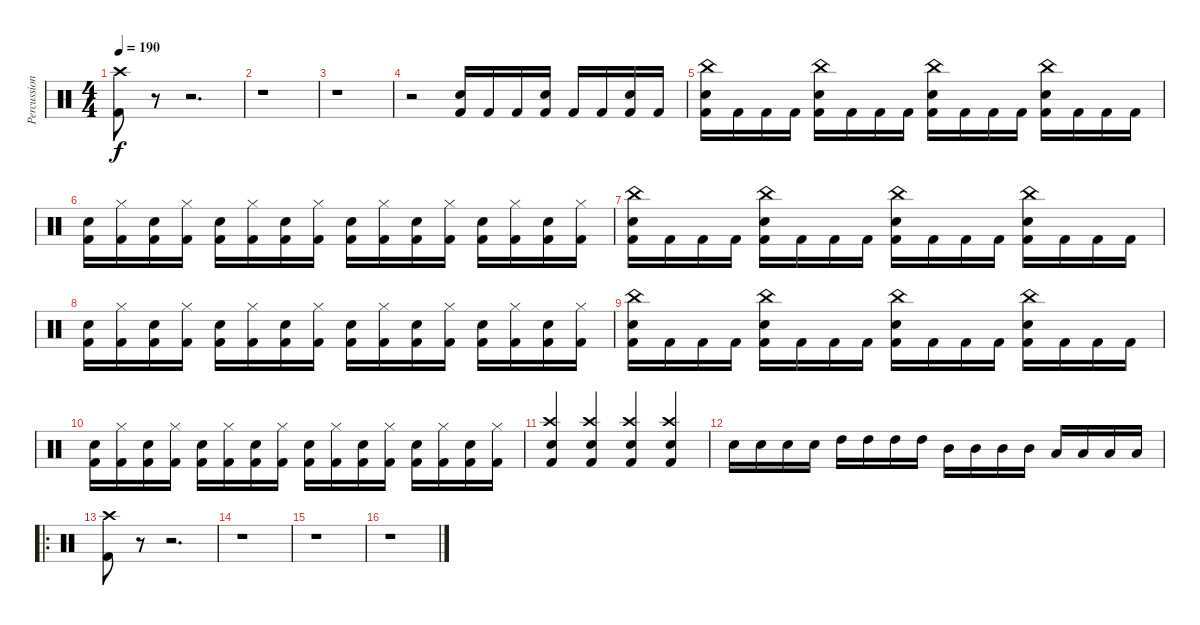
\track ("Percussion" "Percussion") {instrument percussion}
\staff {score}
\articulation defaults
\ts (4 4)
\tempo 190
\clef neutral
\ks c
("Kick (hit) 2" "Crash high (hit)").8{dy f} r.8 r.2{d} |
r.1 |
r.1 |
r.2 ("Snare (hit) 2" "Kick (hit) 2").16 "Kick (hit) 2".16 "Kick (hit) 2".16 ("Snare (hit) 2" "Kick (hit) 2").16 "Kick (hit) 2".16 "Kick (hit) 2".16 ("Snare (hit) 2" "Kick (hit) 2").16 "Kick (hit) 2".16 |
("China (hit)" "Snare (hit) 2" "Kick (hit) 2").16 "Kick (hit) 2".16 "Kick (hit) 2".16 "Kick (hit) 2".16 ("China (hit)" "Snare (hit) 2" "Kick (hit) 2").16 "Kick (hit) 2".16 "Kick (hit) 2".16 "Kick (hit) 2".16 ("China (hit)" "Snare (hit) 2" "Kick (hit) 2").16 "Kick (hit) 2".16 "Kick (hit) 2".16 "Kick (hit) 2".16 ("China (hit)" "Snare (hit) 2" "Kick (hit) 2").16 "Kick (hit) 2".16 "Kick (hit) 2".16 "Kick (hit) 2".16 |
("Snare (hit) 2" "Kick (hit) 2").16 ("Hi-Hat (closed)" "Kick (hit) 2").16 ("Snare (hit) 2" "Kick (hit) 2").16 ("Hi-Hat (closed)" "Kick (hit) 2").16 ("Snare (hit) 2" "Kick (hit) 2").16 ("Hi-Hat (closed)" "Kick (hit) 2").16 ("Snare (hit) 2" "Kick (hit) 2").16 ("Hi-Hat (closed)" "Kick (hit) 2").16 ("Snare (hit) 2" "Kick (hit) 2").16 ("Hi-Hat (closed)" "Kick (hit) 2").16 ("Snare (hit) 2" "Kick (hit) 2").16 ("Hi-Hat (closed)" "Kick (hit) 2").16 ("Snare (hit) 2" "Kick (hit) 2").16 ("Hi-Hat (closed)" "Kick (hit) 2").16 ("Snare (hit) 2" "Kick (hit) 2").16 ("Hi-Hat (closed)" "Kick (hit) 2").16 |
("China (hit)" "Snare (hit) 2" "Kick (hit) 2").16 "Kick (hit) 2".16 "Kick (hit) 2".16 "Kick (hit) 2".16 ("China (hit)" "Snare (hit) 2" "Kick (hit) 2").16 "Kick (hit) 2".16 "Kick (hit) 2".16 "Kick (hit) 2".16 ("China (hit)" "Snare (hit) 2" "Kick (hit) 2").16 "Kick (hit) 2".16 "Kick (hit) 2".16 "Kick (hit) 2".16 ("China (hit)" "Snare (hit) 2" "Kick (hit) 2").16 "Kick (hit) 2".16 "Kick (hit) 2".16 "Kick (hit) 2".16 |
("Snare (hit) 2" "Kick (hit) 2").16 ("Hi-Hat (closed)" "Kick (hit) 2").16 ("Snare (hit) 2" "Kick (hit) 2").16 ("Hi-Hat (closed)" "Kick (hit) 2").16 ("Snare (hit) 2" "Kick (hit) 2").16 ("Hi-Hat (closed)" "Kick (hit) 2").16 ("Snare (hit) 2" "Kick (hit) 2").16 ("Hi-Hat (closed)" "Kick (hit) 2").16 ("Snare (hit) 2" "Kick (hit) 2").16 ("Hi-Hat (closed)" "Kick (hit) 2").16 ("Snare (hit) 2" "Kick (hit) 2").16 ("Hi-Hat (closed)" "Kick (hit) 2").16 ("Snare (hit) 2" "Kick (hit) 2").16 ("Hi-Hat (closed)" "Kick (hit) 2").16 ("Snare (hit) 2" "Kick (hit) 2").16 ("Hi-Hat (closed)" "Kick (hit) 2").16 |
("China (hit)" "Snare (hit) 2" "Kick (hit) 2").16 "Kick (hit) 2".16 "Kick (hit) 2".16 "Kick (hit) 2".16 ("China (hit)" "Snare (hit) 2" "Kick (hit) 2").16 "Kick (hit) 2".16 "Kick (hit) 2".16 "Kick (hit) 2".16 ("China (hit)" "Snare (hit) 2" "Kick (hit) 2").16 "Kick (hit) 2".16 "Kick (hit) 2".16 "Kick (hit) 2".16 ("China (hit)" "Snare (hit) 2" "Kick (hit) 2").16 "Kick (hit) 2".16 "Kick (hit) 2".16 "Kick (hit) 2".16 |
("Snare (hit) 2" "Kick (hit) 2").16 ("Hi-Hat (closed)" "Kick (hit) 2").16 ("Snare (hit) 2" "Kick (hit) 2").16 ("Hi-Hat (closed)" "Kick (hit) 2").16 ("Snare (hit) 2" "Kick (hit) 2").16 ("Hi-Hat (closed)" "Kick (hit) 2").16 ("Snare (hit) 2" "Kick (hit) 2").16 ("Hi-Hat (closed)" "Kick (hit) 2").16 ("Snare (hit) 2" "Kick (hit) 2").16 ("Hi-Hat (closed)" "Kick (hit) 2").16 ("Snare (hit) 2" "Kick (hit) 2").16 ("Hi-Hat (closed)" "Kick (hit) 2").16 ("Snare (hit) 2" "Kick (hit) 2").16 ("Hi-Hat (closed)" "Kick (hit) 2").16 ("Snare (hit) 2" "Kick (hit) 2").16 ("Hi-Hat (closed)" "Kick (hit) 2").16 |
("Kick (hit) 2" "Snare (hit) 2" "Crash high (hit)").4 ("Kick (hit) 2" "Snare (hit) 2" "Crash high (hit)").4 ("Kick (hit) 2" "Snare (hit) 2" "Crash high (hit)").4 ("Kick (hit) 2" "Snare (hit) 2" "Crash high (hit)").4 |
"Snare (hit) 2".16 "Snare (hit) 2".16 "Snare (hit) 2".16 "Snare (hit) 2".16 "High Tom (hit)".16 "High Tom (hit)".16 "High Tom (hit)".16 "High Tom (hit)".16 "Mid Tom (hit)".16 "Mid Tom (hit)".16 "Mid Tom (hit)".16 "Mid Tom (hit)".16 "Low Tom (hit)".16 "Low Tom (hit)".16 "Low Tom (hit)".16 "Low Tom (hit)".16 |
\ro
("Kick (hit) 2" "Crash high (hit)").8 r.8 r.2{d} |
r.1 |
r.1 |
r.1
